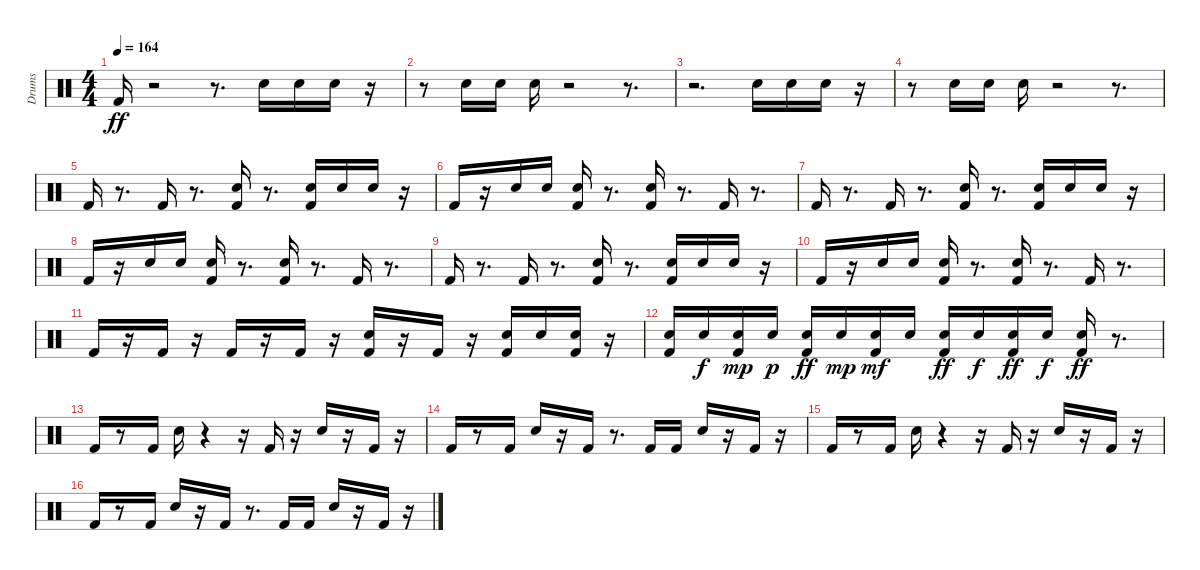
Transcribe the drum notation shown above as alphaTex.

\track ("Drums               " "Drums     ") {instrument percussion}
\staff {score}
\articulation defaults
\ts (4 4)
\tempo 164
\clef neutral
\ks c "Kick (hit) 2".16{dy ff}
r.2 r.8{d} "Electric Snare (hit)".16 "Electric Snare (hit)".16 "Electric Snare (hit)".16 r.16 |
r.8 "Electric Snare (hit)".16 "Electric Snare (hit)".16 "Electric Snare (hit)".16 r.2 r.8{d} |
r.2{d} "Electric Snare (hit)".16 "Electric Snare (hit)".16 "Electric Snare (hit)".16 r.16 |
r.8 "Electric Snare (hit)".16 "Electric Snare (hit)".16 "Electric Snare (hit)".16 r.2 r.8{d} |
"Kick (hit) 2".16 r.8{d} "Kick (hit) 2".16 r.8{d} ("Kick (hit) 2" "Electric Snare (hit)").16 r.8{d} ("Electric Snare (hit)" "Kick (hit) 2").16 "Electric Snare (hit)".16 "Electric Snare (hit)".16 r.16 |
"Kick (hit) 2".16 r.16 "Electric Snare (hit)".16 "Electric Snare (hit)".16 ("Electric Snare (hit)" "Kick (hit) 2").16 r.8{d} ("Electric Snare (hit)" "Kick (hit) 2").16 r.8{d} "Kick (hit) 2".16 r.8{d} |
"Kick (hit) 2".16 r.8{d} "Kick (hit) 2".16 r.8{d} ("Electric Snare (hit)" "Kick (hit) 2").16 r.8{d} ("Electric Snare (hit)" "Kick (hit) 2").16 "Electric Snare (hit)".16 "Electric Snare (hit)".16 r.16 |
"Kick (hit) 2".16 r.16 "Electric Snare (hit)".16 "Electric Snare (hit)".16 ("Kick (hit) 2" "Electric Snare (hit)").16 r.8{d} ("Kick (hit) 2" "Electric Snare (hit)").16 r.8{d} "Kick (hit) 2".16 r.8{d} |
"Kick (hit) 2".16 r.8{d} "Kick (hit) 2".16 r.8{d} ("Kick (hit) 2" "Electric Snare (hit)").16 r.8{d} ("Kick (hit) 2" "Electric Snare (hit)").16 "Electric Snare (hit)".16 "Electric Snare (hit)".16 r.16 |
"Kick (hit) 2".16 r.16 "Electric Snare (hit)".16 "Electric Snare (hit)".16 ("Kick (hit) 2" "Electric Snare (hit)").16 r.8{d} ("Kick (hit) 2" "Electric Snare (hit)").16 r.8{d} "Kick (hit) 2".16 r.8{d} |
"Kick (hit) 2".16 r.16 "Kick (hit) 2".16 r.16 "Kick (hit) 2".16 r.16 "Kick (hit) 2".16 r.16 ("Electric Snare (hit)" "Kick (hit) 2").16 r.16 "Kick (hit) 2".16 r.16 ("Kick (hit) 2" "Electric Snare (hit)").16 "Electric Snare (hit)".16 ("Kick (hit) 2" "Electric Snare (hit)").16 r.16 |
("Kick (hit) 2" "Electric Snare (hit)").16 "Electric Snare (hit)".16{dy f} ("Kick (hit) 2" "Electric Snare (hit)").16{dy mp} "Electric Snare (hit)".16{dy p} ("Electric Snare (hit)" "Kick (hit) 2").16{dy ff} "Electric Snare (hit)".16{dy mp} ("Kick (hit) 2" "Electric Snare (hit)").16{dy mf} "Electric Snare (hit)".16 ("Electric Snare (hit)" "Kick (hit) 2").16{dy ff} "Electric Snare (hit)".16{dy f} ("Kick (hit) 2" "Electric Snare (hit)").16{dy ff} "Electric Snare (hit)".16{dy f} ("Kick (hit) 2" "Electric Snare (hit)").16{dy ff} r.8{d} |
"Kick (hit) 2".16 r.8 "Kick (hit) 2".16 "Electric Snare (hit)".16 r.4 r.16 "Kick (hit) 2".16 r.16 "Electric Snare (hit)".16 r.16 "Kick (hit) 2".16 r.16 |
"Kick (hit) 2".16 r.8 "Kick (hit) 2".16 "Electric Snare (hit)".16 r.16 "Kick (hit) 2".16 r.8{d} "Kick (hit) 2".16 "Kick (hit) 2".16 "Electric Snare (hit)".16 r.16 "Kick (hit) 2".16 r.16 |
"Kick (hit) 2".16 r.8 "Kick (hit) 2".16 "Electric Snare (hit)".16 r.4 r.16 "Kick (hit) 2".16 r.16 "Electric Snare (hit)".16 r.16 "Kick (hit) 2".16 r.16 |
"Kick (hit) 2".16 r.8 "Kick (hit) 2".16 "Electric Snare (hit)".16 r.16 "Kick (hit) 2".16 r.8{d} "Kick (hit) 2".16 "Kick (hit) 2".16 "Electric Snare (hit)".16 r.16 "Kick (hit) 2".16 r.16
